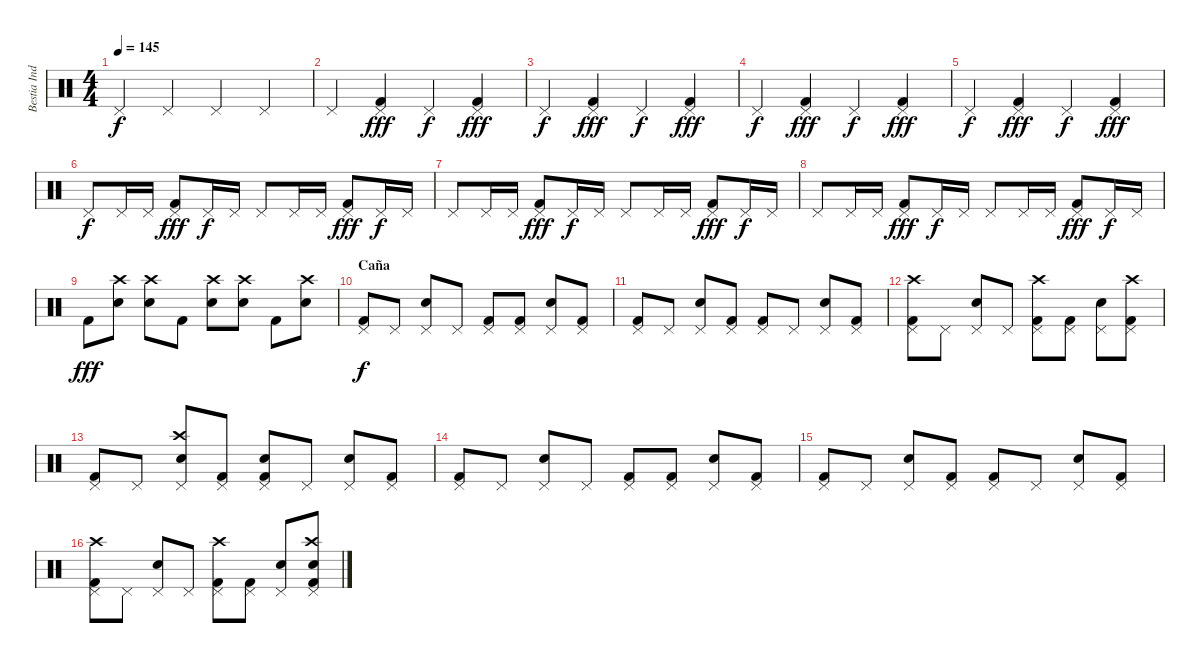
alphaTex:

\track ("Bestia Indomable" "Bestia Ind") {instrument percussion}
\staff {score}
\articulation defaults
\ts (4 4)
\tempo 145
\clef neutral
\ks c "Pedal Hi-Hat (hit)".4{dy f} "Pedal Hi-Hat (hit)".4 "Pedal Hi-Hat (hit)".4 "Pedal Hi-Hat (hit)".4
|
"Pedal Hi-Hat (hit)".4 ("Pedal Hi-Hat (hit)" "Kick (hit) 2").4{dy fff} "Pedal Hi-Hat (hit)".4{dy f} ("Pedal Hi-Hat (hit)" "Kick (hit) 2").4{dy fff} |
"Pedal Hi-Hat (hit)".4{dy f} ("Pedal Hi-Hat (hit)" "Kick (hit) 2").4{dy fff} "Pedal Hi-Hat (hit)".4{dy f} ("Pedal Hi-Hat (hit)" "Kick (hit) 2").4{dy fff} |
"Pedal Hi-Hat (hit)".4{dy f} ("Pedal Hi-Hat (hit)" "Kick (hit) 2").4{dy fff} "Pedal Hi-Hat (hit)".4{dy f} ("Pedal Hi-Hat (hit)" "Kick (hit) 2").4{dy fff} |
"Pedal Hi-Hat (hit)".4{dy f} ("Pedal Hi-Hat (hit)" "Kick (hit) 2").4{dy fff} "Pedal Hi-Hat (hit)".4{dy f} ("Pedal Hi-Hat (hit)" "Kick (hit) 2").4{dy fff} |
"Pedal Hi-Hat (hit)".8{dy f} "Pedal Hi-Hat (hit)".16 "Pedal Hi-Hat (hit)".16 ("Pedal Hi-Hat (hit)" "Kick (hit) 2").8{dy fff} "Pedal Hi-Hat (hit)".16{dy f} "Pedal Hi-Hat (hit)".16 "Pedal Hi-Hat (hit)".8 "Pedal Hi-Hat (hit)".16 "Pedal Hi-Hat (hit)".16 ("Pedal Hi-Hat (hit)" "Kick (hit) 2").8{dy fff} "Pedal Hi-Hat (hit)".16{dy f} "Pedal Hi-Hat (hit)".16 |
"Pedal Hi-Hat (hit)".8 "Pedal Hi-Hat (hit)".16 "Pedal Hi-Hat (hit)".16 ("Pedal Hi-Hat (hit)" "Kick (hit) 2").8{dy fff} "Pedal Hi-Hat (hit)".16{dy f} "Pedal Hi-Hat (hit)".16 "Pedal Hi-Hat (hit)".8 "Pedal Hi-Hat (hit)".16 "Pedal Hi-Hat (hit)".16 ("Pedal Hi-Hat (hit)" "Kick (hit) 2").8{dy fff} "Pedal Hi-Hat (hit)".16{dy f} "Pedal Hi-Hat (hit)".16 |
"Pedal Hi-Hat (hit)".8 "Pedal Hi-Hat (hit)".16 "Pedal Hi-Hat (hit)".16 ("Pedal Hi-Hat (hit)" "Kick (hit) 2").8{dy fff} "Pedal Hi-Hat (hit)".16{dy f} "Pedal Hi-Hat (hit)".16 "Pedal Hi-Hat (hit)".8 "Pedal Hi-Hat (hit)".16 "Pedal Hi-Hat (hit)".16 ("Pedal Hi-Hat (hit)" "Kick (hit) 2").8{dy fff} "Pedal Hi-Hat (hit)".16{dy f} "Pedal Hi-Hat (hit)".16 |
"Kick (hit) 2".8{dy fff} ("Crash high (hit)" "Electric Snare (hit)").8 ("Crash high (hit)" "Electric Snare (hit)").8 "Kick (hit) 2".8 ("Crash high (hit)" "Electric Snare (hit)").8 ("Crash high (hit)" "Electric Snare (hit)").8 "Kick (hit) 2".8 ("Crash high (hit)" "Electric Snare (hit)").8 |
\section ("" "Caña")
("Pedal Hi-Hat (hit)" "Kick (hit) 2").8{dy f} "Pedal Hi-Hat (hit)".8 ("Pedal Hi-Hat (hit)" "Electric Snare (hit)").8 "Pedal Hi-Hat (hit)".8 ("Pedal Hi-Hat (hit)" "Kick (hit) 2").8 ("Pedal Hi-Hat (hit)" "Kick (hit) 2").8 ("Pedal Hi-Hat (hit)" "Electric Snare (hit)").8 ("Pedal Hi-Hat (hit)" "Kick (hit) 2").8 |
("Pedal Hi-Hat (hit)" "Kick (hit) 2").8 "Pedal Hi-Hat (hit)".8 ("Pedal Hi-Hat (hit)" "Electric Snare (hit)").8 ("Pedal Hi-Hat (hit)" "Kick (hit) 2").8 ("Pedal Hi-Hat (hit)" "Kick (hit) 2").8 "Pedal Hi-Hat (hit)".8 ("Pedal Hi-Hat (hit)" "Electric Snare (hit)").8 ("Pedal Hi-Hat (hit)" "Kick (hit) 2").8 |
("Pedal Hi-Hat (hit)" "Crash high (hit)" "Kick (hit) 2").8 "Pedal Hi-Hat (hit)".8 ("Pedal Hi-Hat (hit)" "Electric Snare (hit)").8 "Pedal Hi-Hat (hit)".8 ("Pedal Hi-Hat (hit)" "Crash high (hit)" "Kick (hit) 2").8 ("Pedal Hi-Hat (hit)" "Kick (hit) 2").8 ("Pedal Hi-Hat (hit)" "Electric Snare (hit)").8 ("Pedal Hi-Hat (hit)" "Crash high (hit)" "Kick (hit) 2").8 |
("Pedal Hi-Hat (hit)" "Kick (hit) 2").8 "Pedal Hi-Hat (hit)".8 ("Pedal Hi-Hat (hit)" "Crash high (hit)" "Electric Snare (hit)").8 ("Pedal Hi-Hat (hit)" "Kick (hit) 2").8 ("Pedal Hi-Hat (hit)" "Electric Snare (hit)" "Kick (hit) 2").8 "Pedal Hi-Hat (hit)".8 ("Pedal Hi-Hat (hit)" "Electric Snare (hit)").8 ("Pedal Hi-Hat (hit)" "Kick (hit) 2").8 |
("Pedal Hi-Hat (hit)" "Kick (hit) 2").8 "Pedal Hi-Hat (hit)".8 ("Pedal Hi-Hat (hit)" "Electric Snare (hit)").8 "Pedal Hi-Hat (hit)".8 ("Pedal Hi-Hat (hit)" "Kick (hit) 2").8 ("Pedal Hi-Hat (hit)" "Kick (hit) 2").8 ("Pedal Hi-Hat (hit)" "Electric Snare (hit)").8 ("Pedal Hi-Hat (hit)" "Kick (hit) 2").8 |
("Pedal Hi-Hat (hit)" "Kick (hit) 2").8 "Pedal Hi-Hat (hit)".8 ("Pedal Hi-Hat (hit)" "Electric Snare (hit)").8 ("Pedal Hi-Hat (hit)" "Kick (hit) 2").8 ("Pedal Hi-Hat (hit)" "Kick (hit) 2").8 "Pedal Hi-Hat (hit)".8 ("Pedal Hi-Hat (hit)" "Electric Snare (hit)").8 ("Pedal Hi-Hat (hit)" "Kick (hit) 2").8 |
("Pedal Hi-Hat (hit)" "Crash high (hit)" "Kick (hit) 2").8 "Pedal Hi-Hat (hit)".8 ("Pedal Hi-Hat (hit)" "Electric Snare (hit)").8 "Pedal Hi-Hat (hit)".8 ("Pedal Hi-Hat (hit)" "Crash high (hit)" "Kick (hit) 2").8 ("Pedal Hi-Hat (hit)" "Kick (hit) 2").8 ("Pedal Hi-Hat (hit)" "Electric Snare (hit)").8 ("Pedal Hi-Hat (hit)" "Crash high (hit)" "Electric Snare (hit)" "Kick (hit) 2").8
